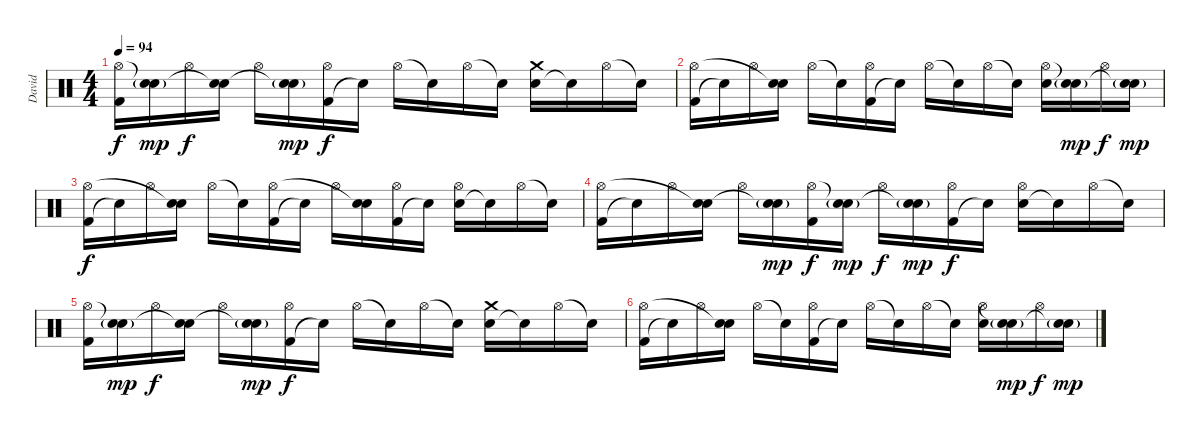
\track ("David" "David") {instrument percussion}
\staff {score}
\articulation defaults
\ts (4 4)
\tempo 94
\clef neutral
\ks c
("Kick (hit) 2" "Hi-Hat (open)").16{dy f} ("Electric Snare (hit)"{g} "Snare (hit)"{t}).16{dy mp} "Hi-Hat (open)".16{dy f} ("Electric Snare (hit)" "Snare (hit)"{t}).16 "Hi-Hat (open)".16 ("Electric Snare (hit)"{g} "Snare (hit)"{t}).16{dy mp} ("Kick (hit) 2" "Hi-Hat (open)").16{dy f} "Snare (hit)"{t}.16 "Hi-Hat (open)".16 "Snare (hit)"{t}.16 "Hi-Hat (open)".16 "Snare (hit)"{t}.16 ("Electric Snare (hit)" "Crash medium (hit)").16 "Snare (hit)"{t}.16 "Hi-Hat (open)".16 "Snare (hit)"{t}.16 |
("Kick (hit) 2" "Hi-Hat (open)").16 "Snare (hit)"{t}.16 "Hi-Hat (open)".16 ("Electric Snare (hit)" "Snare (hit)"{t}).16 "Hi-Hat (open)".16 "Snare (hit)"{t}.16 ("Kick (hit) 2" "Hi-Hat (open)").16 "Snare (hit)"{t}.16 "Hi-Hat (open)".16 "Snare (hit)"{t}.16 "Hi-Hat (open)".16 "Snare (hit)"{t}.16 ("Electric Snare (hit)" "Hi-Hat (open)").16 ("Electric Snare (hit)"{g} "Snare (hit)"{t}).16{dy mp} "Hi-Hat (open)".16{dy f} ("Electric Snare (hit)"{g} "Snare (hit)"{t}).16{dy mp} |
("Kick (hit) 2" "Hi-Hat (open)").16{dy f} "Snare (hit)"{t}.16 "Hi-Hat (open)".16 ("Electric Snare (hit)" "Snare (hit)"{t}).16 "Hi-Hat (open)".16 "Snare (hit)"{t}.16 ("Kick (hit) 2" "Hi-Hat (open)").16 "Snare (hit)"{t}.16 "Hi-Hat (open)".16 ("Electric Snare (hit)" "Snare (hit)"{t}).16 ("Kick (hit) 2" "Hi-Hat (open)").16 "Snare (hit)"{t}.16 ("Electric Snare (hit)" "Hi-Hat (open)").16 "Snare (hit)"{t}.16 "Hi-Hat (open)".16 "Snare (hit)"{t}.16 |
("Kick (hit) 2" "Hi-Hat (open)").16 "Snare (hit)"{t}.16 "Hi-Hat (open)".16 ("Electric Snare (hit)" "Snare (hit)"{t}).16 "Hi-Hat (open)".16 ("Electric Snare (hit)"{g} "Snare (hit)"{t}).16{dy mp} ("Kick (hit) 2" "Hi-Hat (open)").16{dy f} ("Electric Snare (hit)"{g} "Snare (hit)"{t}).16{dy mp} "Hi-Hat (open)".16{dy f} ("Electric Snare (hit)"{g} "Snare (hit)"{t}).16{dy mp} ("Kick (hit) 2" "Hi-Hat (open)").16{dy f} "Snare (hit)"{t}.16 ("Electric Snare (hit)" "Hi-Hat (open)").16 "Snare (hit)"{t}.16 "Hi-Hat (open)".16 "Snare (hit)"{t}.16 |
("Kick (hit) 2" "Hi-Hat (open)").16 ("Electric Snare (hit)"{g} "Snare (hit)"{t}).16{dy mp} "Hi-Hat (open)".16{dy f} ("Electric Snare (hit)" "Snare (hit)"{t}).16 "Hi-Hat (open)".16 ("Electric Snare (hit)"{g} "Snare (hit)"{t}).16{dy mp} ("Kick (hit) 2" "Hi-Hat (open)").16{dy f} "Snare (hit)"{t}.16 "Hi-Hat (open)".16 "Snare (hit)"{t}.16 "Hi-Hat (open)".16 "Snare (hit)"{t}.16 ("Electric Snare (hit)" "Crash medium (hit)").16 "Snare (hit)"{t}.16 "Hi-Hat (open)".16 "Snare (hit)"{t}.16 |
("Kick (hit) 2" "Hi-Hat (open)").16 "Snare (hit)"{t}.16 "Hi-Hat (open)".16 ("Electric Snare (hit)" "Snare (hit)"{t}).16 "Hi-Hat (open)".16 "Snare (hit)"{t}.16 ("Kick (hit) 2" "Hi-Hat (open)").16 "Snare (hit)"{t}.16 "Hi-Hat (open)".16 "Snare (hit)"{t}.16 "Hi-Hat (open)".16 "Snare (hit)"{t}.16 ("Electric Snare (hit)" "Hi-Hat (open)").16 ("Electric Snare (hit)"{g} "Snare (hit)"{t}).16{dy mp} "Hi-Hat (open)".16{dy f} ("Electric Snare (hit)"{g} "Snare (hit)"{t}).16{dy mp}
